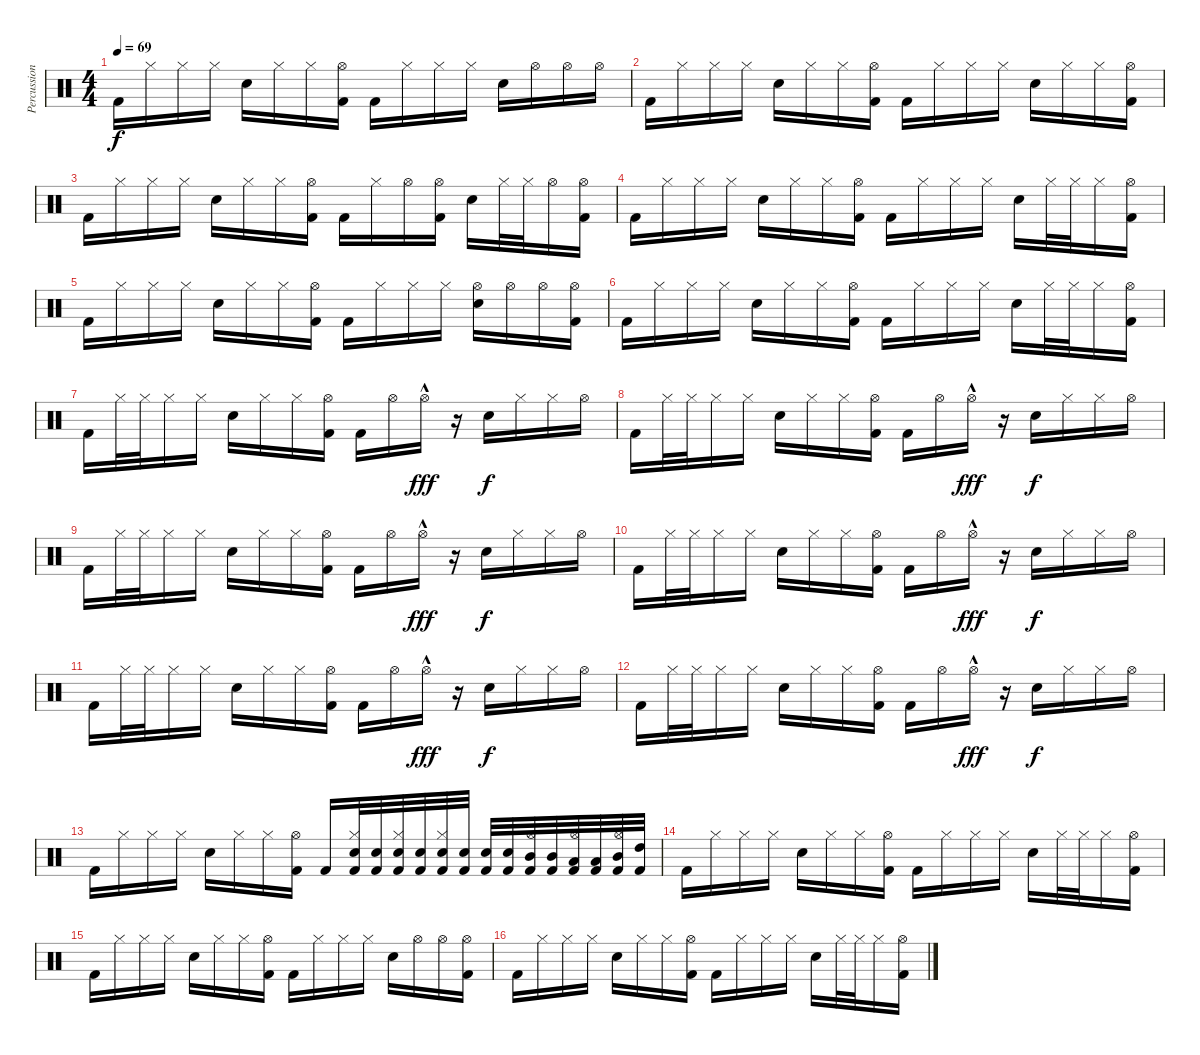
\track ("Percussions" "Percussion") {instrument percussion}
\staff {score}
\articulation defaults
\ts (4 4)
\tempo 69
\clef neutral
\ks c "Kick (hit) 2".16{dy f} "Hi-Hat (closed)".16 "Hi-Hat (closed)".16 "Hi-Hat (closed)".16 "Electric Snare (hit)".16 "Hi-Hat (closed)".16 "Hi-Hat (closed)".16
("Hi-Hat (open)" "Kick (hit) 2").16 "Kick (hit) 2".16 "Hi-Hat (closed)".16 "Hi-Hat (closed)".16 "Hi-Hat (closed)".16 "Electric Snare (hit)".16 "Hi-Hat (open)".16 "Hi-Hat (open)".16 "Hi-Hat (open)".16 |
"Kick (hit) 2".16 "Hi-Hat (closed)".16 "Hi-Hat (closed)".16 "Hi-Hat (closed)".16 "Electric Snare (hit)".16 "Hi-Hat (closed)".16 "Hi-Hat (closed)".16 ("Hi-Hat (open)" "Kick (hit) 2").16 "Kick (hit) 2".16 "Hi-Hat (closed)".16 "Hi-Hat (closed)".16 "Hi-Hat (closed)".16 "Electric Snare (hit)".16 "Hi-Hat (closed)".16 "Hi-Hat (closed)".16 ("Hi-Hat (open)" "Kick (hit) 2").16 |
"Kick (hit) 2".16 "Hi-Hat (closed)".16 "Hi-Hat (closed)".16 "Hi-Hat (closed)".16 "Electric Snare (hit)".16 "Hi-Hat (closed)".16 "Hi-Hat (closed)".16 ("Hi-Hat (open)" "Kick (hit) 2").16 "Kick (hit) 2".16 "Hi-Hat (closed)".16 "Hi-Hat (open)".16 ("Hi-Hat (open)" "Kick (hit) 2").16 "Electric Snare (hit)".16 "Hi-Hat (closed)".32 "Hi-Hat (closed)".32 "Hi-Hat (open)".16 ("Hi-Hat (open)" "Kick (hit) 2").16 |
"Kick (hit) 2".16 "Hi-Hat (closed)".16 "Hi-Hat (closed)".16 "Hi-Hat (closed)".16 "Electric Snare (hit)".16 "Hi-Hat (closed)".16 "Hi-Hat (closed)".16 ("Hi-Hat (open)" "Kick (hit) 2").16 "Kick (hit) 2".16 "Hi-Hat (closed)".16 "Hi-Hat (closed)".16 "Hi-Hat (closed)".16 "Electric Snare (hit)".16 "Hi-Hat (closed)".32 "Hi-Hat (closed)".32 "Hi-Hat (closed)".16 ("Hi-Hat (open)" "Kick (hit) 2").16 |
"Kick (hit) 2".16 "Hi-Hat (closed)".16 "Hi-Hat (closed)".16 "Hi-Hat (closed)".16 "Electric Snare (hit)".16 "Hi-Hat (closed)".16 "Hi-Hat (closed)".16 ("Hi-Hat (open)" "Kick (hit) 2").16 "Kick (hit) 2".16 "Hi-Hat (closed)".16 "Hi-Hat (closed)".16 "Hi-Hat (closed)".16 ("Hi-Hat (open)" "Electric Snare (hit)").16 "Hi-Hat (open)".16 "Hi-Hat (open)".16 ("Hi-Hat (open)" "Kick (hit) 2").16 |
"Kick (hit) 2".16 "Hi-Hat (closed)".16 "Hi-Hat (closed)".16 "Hi-Hat (closed)".16 "Electric Snare (hit)".16 "Hi-Hat (closed)".16 "Hi-Hat (closed)".16 ("Hi-Hat (open)" "Kick (hit) 2").16 "Kick (hit) 2".16 "Hi-Hat (closed)".16 "Hi-Hat (closed)".16 "Hi-Hat (closed)".16 "Electric Snare (hit)".16 "Hi-Hat (closed)".32 "Hi-Hat (closed)".32 "Hi-Hat (closed)".16 ("Hi-Hat (open)" "Kick (hit) 2").16 |
"Kick (hit) 2".16 "Hi-Hat (closed)".32 "Hi-Hat (closed)".32 "Hi-Hat (closed)".16 "Hi-Hat (closed)".16 "Electric Snare (hit)".16 "Hi-Hat (closed)".16 "Hi-Hat (closed)".16 ("Hi-Hat (open)" "Kick (hit) 2").16 "Kick (hit) 2".16 "Hi-Hat (open)".16 "Hi-Hat (open)"{hac}.16{dy fff} r.16 "Electric Snare (hit)".16{dy f} "Hi-Hat (closed)".16 "Hi-Hat (closed)".16 "Hi-Hat (open)".16 |
"Kick (hit) 2".16 "Hi-Hat (closed)".32 "Hi-Hat (closed)".32 "Hi-Hat (closed)".16 "Hi-Hat (closed)".16 "Electric Snare (hit)".16 "Hi-Hat (closed)".16 "Hi-Hat (closed)".16 ("Hi-Hat (open)" "Kick (hit) 2").16 "Kick (hit) 2".16 "Hi-Hat (open)".16 "Hi-Hat (open)"{hac}.16{dy fff} r.16 "Electric Snare (hit)".16{dy f} "Hi-Hat (closed)".16 "Hi-Hat (closed)".16 "Hi-Hat (open)".16 |
"Kick (hit) 2".16 "Hi-Hat (closed)".32 "Hi-Hat (closed)".32 "Hi-Hat (closed)".16 "Hi-Hat (closed)".16 "Electric Snare (hit)".16 "Hi-Hat (closed)".16 "Hi-Hat (closed)".16 ("Hi-Hat (open)" "Kick (hit) 2").16 "Kick (hit) 2".16 "Hi-Hat (open)".16 "Hi-Hat (open)"{hac}.16{dy fff} r.16 "Electric Snare (hit)".16{dy f} "Hi-Hat (closed)".16 "Hi-Hat (closed)".16 "Hi-Hat (open)".16 |
"Kick (hit) 2".16 "Hi-Hat (closed)".32 "Hi-Hat (closed)".32 "Hi-Hat (closed)".16 "Hi-Hat (closed)".16 "Electric Snare (hit)".16 "Hi-Hat (closed)".16 "Hi-Hat (closed)".16 ("Hi-Hat (open)" "Kick (hit) 2").16 "Kick (hit) 2".16 "Hi-Hat (open)".16 "Hi-Hat (open)"{hac}.16{dy fff} r.16 "Electric Snare (hit)".16{dy f} "Hi-Hat (closed)".16 "Hi-Hat (closed)".16 "Hi-Hat (open)".16 |
"Kick (hit) 2".16 "Hi-Hat (closed)".32 "Hi-Hat (closed)".32 "Hi-Hat (closed)".16 "Hi-Hat (closed)".16 "Electric Snare (hit)".16 "Hi-Hat (closed)".16 "Hi-Hat (closed)".16 ("Hi-Hat (open)" "Kick (hit) 2").16 "Kick (hit) 2".16 "Hi-Hat (open)".16 "Hi-Hat (open)"{hac}.16{dy fff} r.16 "Electric Snare (hit)".16{dy f} "Hi-Hat (closed)".16 "Hi-Hat (closed)".16 "Hi-Hat (open)".16 |
"Kick (hit) 2".16 "Hi-Hat (closed)".32 "Hi-Hat (closed)".32 "Hi-Hat (closed)".16 "Hi-Hat (closed)".16 "Electric Snare (hit)".16 "Hi-Hat (closed)".16 "Hi-Hat (closed)".16 ("Hi-Hat (open)" "Kick (hit) 2").16 "Kick (hit) 2".16 "Hi-Hat (open)".16 "Hi-Hat (open)"{hac}.16{dy fff} r.16 "Electric Snare (hit)".16{dy f} "Hi-Hat (closed)".16 "Hi-Hat (closed)".16 "Hi-Hat (open)".16 |
"Kick (hit) 2".16 "Hi-Hat (closed)".16 "Hi-Hat (closed)".16 "Hi-Hat (closed)".16 "Electric Snare (hit)".16 "Hi-Hat (closed)".16 "Hi-Hat (closed)".16 ("Hi-Hat (open)" "Kick (hit) 2").16 "Kick (hit) 2".16 ("Hi-Hat (closed)" "Electric Snare (hit)" "Kick (hit) 2").32 ("Electric Snare (hit)" "Kick (hit) 2").32 ("Hi-Hat (closed)" "Electric Snare (hit)" "Kick (hit) 2").32 ("Snare (hit) 2" "Kick (hit) 2").32 ("Hi-Hat (closed)" "Snare (hit) 2" "Kick (hit) 2").32 ("Snare (hit) 2" "Kick (hit) 2").32 ("Electric Snare (hit)" "Kick (hit) 2").32 ("Electric Snare (hit)" "Kick (hit) 2").32 ("Hi-Hat (open)" "Mid Tom (hit)" "Kick (hit) 2").32 ("Mid Tom (hit)" "Kick (hit) 2").32 ("Hi-Hat (open)" "Low Tom (hit)" "Kick (hit) 2").32 ("Low Tom (hit)" "Kick (hit) 2").32 ("Hi-Hat (open)" "Mid Tom (hit)" "Kick (hit) 2").32 ("High Tom (hit)" "Kick (hit) 2").32 |
"Kick (hit) 2".16 "Hi-Hat (closed)".16 "Hi-Hat (closed)".16 "Hi-Hat (closed)".16 "Electric Snare (hit)".16 "Hi-Hat (closed)".16 "Hi-Hat (closed)".16 ("Hi-Hat (open)" "Kick (hit) 2").16 "Kick (hit) 2".16 "Hi-Hat (closed)".16 "Hi-Hat (closed)".16 "Hi-Hat (closed)".16 "Electric Snare (hit)".16 "Hi-Hat (closed)".32 "Hi-Hat (closed)".32 "Hi-Hat (closed)".16 ("Hi-Hat (open)" "Kick (hit) 2").16 |
"Kick (hit) 2".16 "Hi-Hat (closed)".16 "Hi-Hat (closed)".16 "Hi-Hat (closed)".16 "Electric Snare (hit)".16 "Hi-Hat (closed)".16 "Hi-Hat (closed)".16 ("Hi-Hat (open)" "Kick (hit) 2").16 "Kick (hit) 2".16 "Hi-Hat (closed)".16 "Hi-Hat (closed)".16 "Hi-Hat (closed)".16 "Electric Snare (hit)".16 "Hi-Hat (open)".16 "Hi-Hat (open)".16 ("Hi-Hat (open)" "Kick (hit) 2").16 |
"Kick (hit) 2".16 "Hi-Hat (closed)".16 "Hi-Hat (closed)".16 "Hi-Hat (closed)".16 "Electric Snare (hit)".16 "Hi-Hat (closed)".16 "Hi-Hat (closed)".16 ("Hi-Hat (open)" "Kick (hit) 2").16 "Kick (hit) 2".16 "Hi-Hat (closed)".16 "Hi-Hat (closed)".16 "Hi-Hat (closed)".16 "Electric Snare (hit)".16 "Hi-Hat (closed)".32 "Hi-Hat (closed)".32 "Hi-Hat (closed)".16 ("Hi-Hat (open)" "Kick (hit) 2").16
